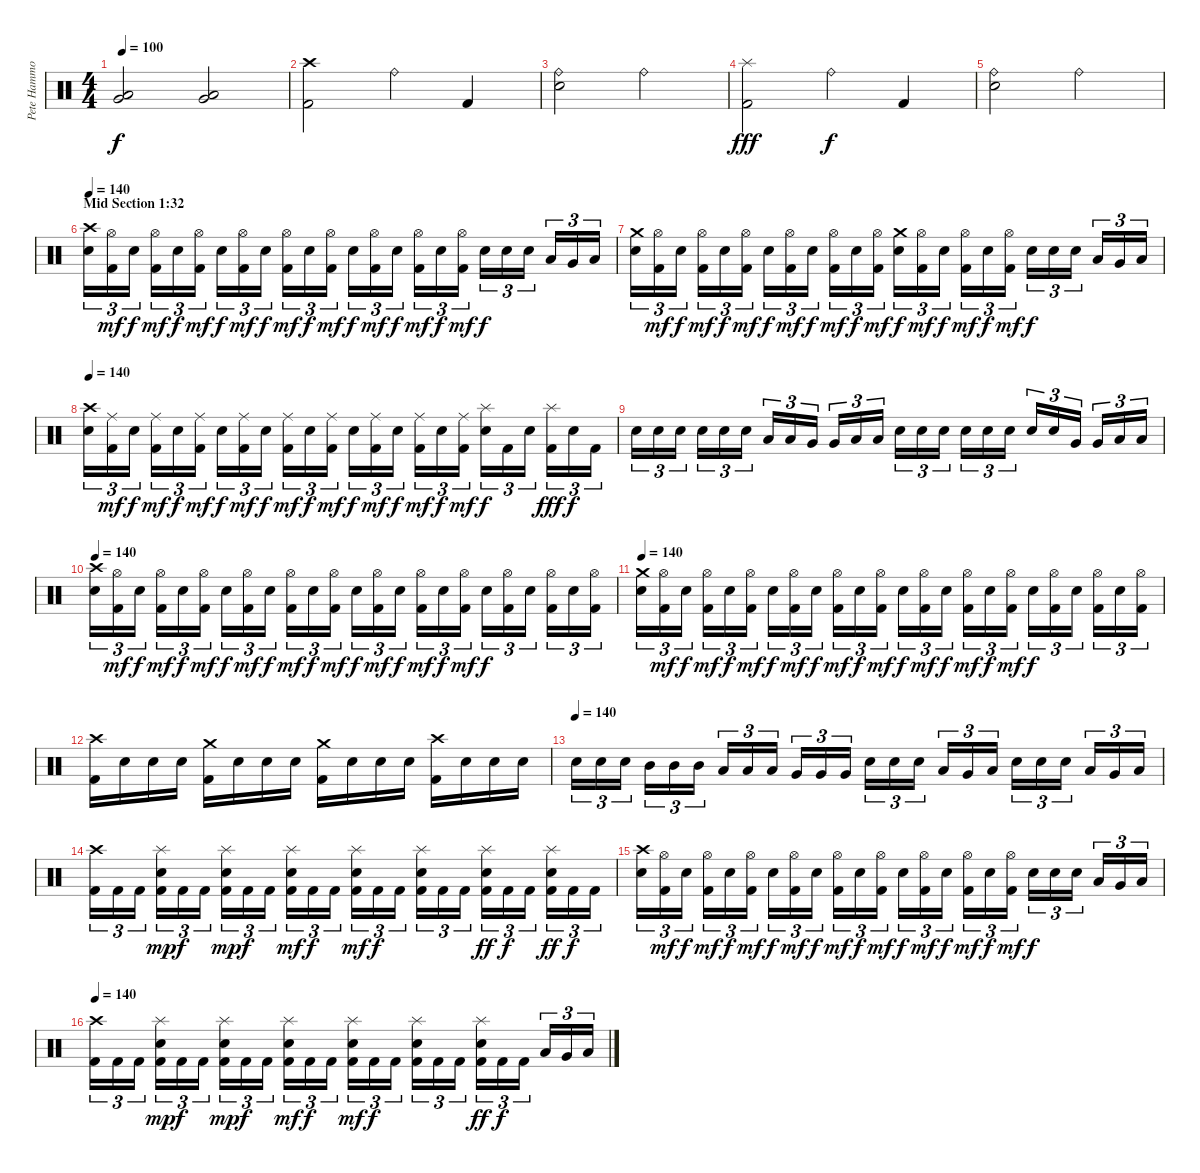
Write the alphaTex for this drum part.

\track ("Pete Hammoura" "Pete Hammo") {instrument percussion}
\staff {score}
\articulation defaults
\ts (4 4)
\tempo 100
\clef neutral
\ks c
("Low Tom (hit)" "Very Low Tom (hit)").2{dy f} ("Very Low Tom (hit)" "Low Floor Tom (hit)").2 |
("Crash high (hit)" "Kick (hit) 2").2 "Ride (bell)".4 "Kick (hit) 2".4 |
("Ride (bell)" "Electric Snare (hit)").2 "Ride (bell)".2 |
("Splash (hit)" "Kick (hit) 2").2{dy fff} "Ride (bell)".4{dy f} "Kick (hit) 2".4 |
("Ride (bell)" "Electric Snare (hit)").2 "Ride (bell)".2 |
\section ("" "Mid Section 1:32")
\tempo 140
("Crash high (hit)" "Electric Snare (hit)").16{tu (3 2)} ("Hi-Hat (open)" "Kick (hit) 2").16{tu (3 2) dy mf} "Electric Snare (hit)".16{tu (3 2) dy f} ("Hi-Hat (open)" "Kick (hit) 2").16{tu (3 2) dy mf} "Electric Snare (hit)".16{tu (3 2) dy f} ("Hi-Hat (open)" "Kick (hit) 2").16{tu (3 2) dy mf} "Electric Snare (hit)".16{tu (3 2) dy f} ("Hi-Hat (open)" "Kick (hit) 2").16{tu (3 2) dy mf} "Electric Snare (hit)".16{tu (3 2) dy f} ("Hi-Hat (open)" "Kick (hit) 2").16{tu (3 2) dy mf} "Electric Snare (hit)".16{tu (3 2) dy f} ("Hi-Hat (open)" "Kick (hit) 2").16{tu (3 2) dy mf} "Electric Snare (hit)".16{tu (3 2) dy f} ("Hi-Hat (open)" "Kick (hit) 2").16{tu (3 2) dy mf} "Electric Snare (hit)".16{tu (3 2) dy f} ("Hi-Hat (open)" "Kick (hit) 2").16{tu (3 2) dy mf} "Electric Snare (hit)".16{tu (3 2) dy f} ("Hi-Hat (open)" "Kick (hit) 2").16{tu (3 2) dy mf} "Electric Snare (hit)".16{tu (3 2) dy f} "Electric Snare (hit)".16{tu (3 2)} "Electric Snare (hit)".16{tu (3 2)} "Low Tom (hit)".16{tu (3 2)} "Very Low Tom (hit)".16{tu (3 2)} "Low Floor Tom (hit)".16{tu (3 2)} |
("Crash medium (hit)" "Electric Snare (hit)").16{tu (3 2)} ("Hi-Hat (open)" "Kick (hit) 2").16{tu (3 2) dy mf} "Electric Snare (hit)".16{tu (3 2) dy f} ("Hi-Hat (open)" "Kick (hit) 2").16{tu (3 2) dy mf} "Electric Snare (hit)".16{tu (3 2) dy f} ("Hi-Hat (open)" "Kick (hit) 2").16{tu (3 2) dy mf} "Electric Snare (hit)".16{tu (3 2) dy f} ("Hi-Hat (open)" "Kick (hit) 2").16{tu (3 2) dy mf} "Electric Snare (hit)".16{tu (3 2) dy f} ("Hi-Hat (open)" "Kick (hit) 2").16{tu (3 2) dy mf} "Electric Snare (hit)".16{tu (3 2) dy f} ("Hi-Hat (open)" "Kick (hit) 2").16{tu (3 2) dy mf} ("Crash medium (hit)" "Electric Snare (hit)").16{tu (3 2) dy f} ("Hi-Hat (open)" "Kick (hit) 2").16{tu (3 2) dy mf} "Electric Snare (hit)".16{tu (3 2) dy f} ("Hi-Hat (open)" "Kick (hit) 2").16{tu (3 2) dy mf} "Electric Snare (hit)".16{tu (3 2) dy f} ("Hi-Hat (open)" "Kick (hit) 2").16{tu (3 2) dy mf} "Electric Snare (hit)".16{tu (3 2) dy f} "Electric Snare (hit)".16{tu (3 2)} "Electric Snare (hit)".16{tu (3 2)} "Low Tom (hit)".16{tu (3 2)} "Very Low Tom (hit)".16{tu (3 2)} "Low Floor Tom (hit)".16{tu (3 2)} |
\tempo 140
("Crash high (hit)" "Electric Snare (hit)").16{tu (3 2)} ("Ride (middle)" "Kick (hit) 2").16{tu (3 2) dy mf} "Electric Snare (hit)".16{tu (3 2) dy f} ("Ride (middle)" "Kick (hit) 2").16{tu (3 2) dy mf} "Electric Snare (hit)".16{tu (3 2) dy f} ("Ride (middle)" "Kick (hit) 2").16{tu (3 2) dy mf} "Electric Snare (hit)".16{tu (3 2) dy f} ("Ride (middle)" "Kick (hit) 2").16{tu (3 2) dy mf} "Electric Snare (hit)".16{tu (3 2) dy f} ("Ride (middle)" "Kick (hit) 2").16{tu (3 2) dy mf} "Electric Snare (hit)".16{tu (3 2) dy f} ("Ride (middle)" "Kick (hit) 2").16{tu (3 2) dy mf} "Electric Snare (hit)".16{tu (3 2) dy f} ("Ride (middle)" "Kick (hit) 2").16{tu (3 2) dy mf} "Electric Snare (hit)".16{tu (3 2) dy f} ("Ride (middle)" "Kick (hit) 2").16{tu (3 2) dy mf} "Electric Snare (hit)".16{tu (3 2) dy f} ("Ride (middle)" "Kick (hit) 2").16{tu (3 2) dy mf} ("Splash (hit)" "Electric Snare (hit)").16{tu (3 2) dy f} "Kick (hit) 2".16{tu (3 2)} "Electric Snare (hit)".16{tu (3 2)} ("Splash (hit)" "Kick (hit) 2").16{tu (3 2) dy fff} "Electric Snare (hit)".16{tu (3 2) dy f} "Kick (hit) 2".16{tu (3 2)} |
"Electric Snare (hit)".16{tu (3 2)} "Electric Snare (hit)".16{tu (3 2)} "Electric Snare (hit)".16{tu (3 2)} "Electric Snare (hit)".16{tu (3 2)} "Electric Snare (hit)".16{tu (3 2)} "Electric Snare (hit)".16{tu (3 2)} "Low Tom (hit)".16{tu (3 2)} "Low Tom (hit)".16{tu (3 2)} "Very Low Tom (hit)".16{tu (3 2)} "Very Low Tom (hit)".16{tu (3 2)} "Low Floor Tom (hit)".16{tu (3 2)} "Low Floor Tom (hit)".16{tu (3 2)} "Electric Snare (hit)".16{tu (3 2)} "Electric Snare (hit)".16{tu (3 2)} "Electric Snare (hit)".16{tu (3 2)} "Electric Snare (hit)".16{tu (3 2)} "Electric Snare (hit)".16{tu (3 2)} "Electric Snare (hit)".16{tu (3 2)} "Electric Snare (hit)".16{tu (3 2)} "Electric Snare (hit)".16{tu (3 2)} "Very Low Tom (hit)".16{tu (3 2)} "Very Low Tom (hit)".16{tu (3 2)} "Low Floor Tom (hit)".16{tu (3 2)} "Low Floor Tom (hit)".16{tu (3 2)} |
\tempo 140
("Crash high (hit)" "Electric Snare (hit)").16{tu (3 2)} ("Hi-Hat (open)" "Kick (hit) 2").16{tu (3 2) dy mf} "Electric Snare (hit)".16{tu (3 2) dy f} ("Hi-Hat (open)" "Kick (hit) 2").16{tu (3 2) dy mf} "Electric Snare (hit)".16{tu (3 2) dy f} ("Hi-Hat (open)" "Kick (hit) 2").16{tu (3 2) dy mf} "Electric Snare (hit)".16{tu (3 2) dy f} ("Hi-Hat (open)" "Kick (hit) 2").16{tu (3 2) dy mf} "Electric Snare (hit)".16{tu (3 2) dy f} ("Hi-Hat (open)" "Kick (hit) 2").16{tu (3 2) dy mf} "Electric Snare (hit)".16{tu (3 2) dy f} ("Hi-Hat (open)" "Kick (hit) 2").16{tu (3 2) dy mf} "Electric Snare (hit)".16{tu (3 2) dy f} ("Hi-Hat (open)" "Kick (hit) 2").16{tu (3 2) dy mf} "Electric Snare (hit)".16{tu (3 2) dy f} ("Hi-Hat (open)" "Kick (hit) 2").16{tu (3 2) dy mf} "Electric Snare (hit)".16{tu (3 2) dy f} ("Hi-Hat (open)" "Kick (hit) 2").16{tu (3 2) dy mf} "Electric Snare (hit)".16{tu (3 2) dy f} ("Hi-Hat (open)" "Kick (hit) 2").16{tu (3 2)} "Electric Snare (hit)".16{tu (3 2)} ("Hi-Hat (open)" "Kick (hit) 2").16{tu (3 2)} "Electric Snare (hit)".16{tu (3 2)} ("Hi-Hat (open)" "Kick (hit) 2").16{tu (3 2)} |
\tempo 140
("Crash medium (hit)" "Electric Snare (hit)").16{tu (3 2)} ("Hi-Hat (open)" "Kick (hit) 2").16{tu (3 2) dy mf} "Electric Snare (hit)".16{tu (3 2) dy f} ("Hi-Hat (open)" "Kick (hit) 2").16{tu (3 2) dy mf} "Electric Snare (hit)".16{tu (3 2) dy f} ("Hi-Hat (open)" "Kick (hit) 2").16{tu (3 2) dy mf} "Electric Snare (hit)".16{tu (3 2) dy f} ("Hi-Hat (open)" "Kick (hit) 2").16{tu (3 2) dy mf} "Electric Snare (hit)".16{tu (3 2) dy f} ("Hi-Hat (open)" "Kick (hit) 2").16{tu (3 2) dy mf} "Electric Snare (hit)".16{tu (3 2) dy f} ("Hi-Hat (open)" "Kick (hit) 2").16{tu (3 2) dy mf} "Electric Snare (hit)".16{tu (3 2) dy f} ("Hi-Hat (open)" "Kick (hit) 2").16{tu (3 2) dy mf} "Electric Snare (hit)".16{tu (3 2) dy f} ("Hi-Hat (open)" "Kick (hit) 2").16{tu (3 2) dy mf} "Electric Snare (hit)".16{tu (3 2) dy f} ("Hi-Hat (open)" "Kick (hit) 2").16{tu (3 2) dy mf} "Electric Snare (hit)".16{tu (3 2) dy f} ("Hi-Hat (open)" "Kick (hit) 2").16{tu (3 2)} "Electric Snare (hit)".16{tu (3 2)} ("Hi-Hat (open)" "Kick (hit) 2").16{tu (3 2)} "Electric Snare (hit)".16{tu (3 2)} ("Hi-Hat (open)" "Kick (hit) 2").16{tu (3 2)} |
("Crash high (hit)" "Kick (hit) 2").16 "Electric Snare (hit)".16 "Electric Snare (hit)".16 "Electric Snare (hit)".16 ("Crash medium (hit)" "Kick (hit) 2").16 "Electric Snare (hit)".16 "Electric Snare (hit)".16 "Electric Snare (hit)".16 ("Crash medium (hit)" "Kick (hit) 2").16 "Electric Snare (hit)".16 "Electric Snare (hit)".16 "Electric Snare (hit)".16 ("Crash high (hit)" "Kick (hit) 2").16 "Electric Snare (hit)".16 "Electric Snare (hit)".16 "Electric Snare (hit)".16 |
\tempo (140)
"Electric Snare (hit)".16{tu (3 2)} "Electric Snare (hit)".16{tu (3 2)} "Electric Snare (hit)".16{tu (3 2)} "Mid Tom (hit)".16{tu (3 2)} "Mid Tom (hit)".16{tu (3 2)} "Mid Tom (hit)".16{tu (3 2)} "Low Tom (hit)".16{tu (3 2)} "Low Tom (hit)".16{tu (3 2)} "Low Tom (hit)".16{tu (3 2)} "Very Low Tom (hit)".16{tu (3 2)} "Very Low Tom (hit)".16{tu (3 2)} "Very Low Tom (hit)".16{tu (3 2)} "Electric Snare (hit)".16{tu (3 2)} "Electric Snare (hit)".16{tu (3 2)} "Electric Snare (hit)".16{tu (3 2)} "Low Tom (hit)".16{tu (3 2)} "Very Low Tom (hit)".16{tu (3 2)} "Low Floor Tom (hit)".16{tu (3 2)} "Electric Snare (hit)".16{tu (3 2)} "Electric Snare (hit)".16{tu (3 2)} "Electric Snare (hit)".16{tu (3 2)} "Low Tom (hit)".16{tu (3 2)} "Very Low Tom (hit)".16{tu (3 2)} "Low Floor Tom (hit)".16{tu (3 2)} |
("Crash high (hit)" "Kick (hit) 2").16{tu (3 2)} "Kick (hit) 2".16{tu (3 2)} "Kick (hit) 2".16{tu (3 2)} ("Splash (hit)" "Electric Snare (hit)" "Kick (hit) 2").16{tu (3 2) dy mp} "Kick (hit) 2".16{tu (3 2) dy f} "Kick (hit) 2".16{tu (3 2)} ("Splash (hit)" "Electric Snare (hit)" "Kick (hit) 2").16{tu (3 2) dy mp} "Kick (hit) 2".16{tu (3 2) dy f} "Kick (hit) 2".16{tu (3 2)} ("Splash (hit)" "Electric Snare (hit)" "Kick (hit) 2").16{tu (3 2) dy mf} "Kick (hit) 2".16{tu (3 2) dy f} "Kick (hit) 2".16{tu (3 2)} ("Splash (hit)" "Electric Snare (hit)" "Kick (hit) 2").16{tu (3 2) dy mf} "Kick (hit) 2".16{tu (3 2) dy f} "Kick (hit) 2".16{tu (3 2)} ("Splash (hit)" "Electric Snare (hit)" "Kick (hit) 2").16{tu (3 2)} "Kick (hit) 2".16{tu (3 2)} "Kick (hit) 2".16{tu (3 2)} ("Splash (hit)" "Electric Snare (hit)" "Kick (hit) 2").16{tu (3 2) dy ff} "Kick (hit) 2".16{tu (3 2) dy f} "Kick (hit) 2".16{tu (3 2)} ("Splash (hit)" "Electric Snare (hit)" "Kick (hit) 2").16{tu (3 2) dy ff} "Kick (hit) 2".16{tu (3 2) dy f} "Kick (hit) 2".16{tu (3 2)} |
("Crash high (hit)" "Electric Snare (hit)").16{tu (3 2)} ("Hi-Hat (open)" "Kick (hit) 2").16{tu (3 2) dy mf} "Electric Snare (hit)".16{tu (3 2) dy f} ("Hi-Hat (open)" "Kick (hit) 2").16{tu (3 2) dy mf} "Electric Snare (hit)".16{tu (3 2) dy f} ("Hi-Hat (open)" "Kick (hit) 2").16{tu (3 2) dy mf} "Electric Snare (hit)".16{tu (3 2) dy f} ("Hi-Hat (open)" "Kick (hit) 2").16{tu (3 2) dy mf} "Electric Snare (hit)".16{tu (3 2) dy f} ("Hi-Hat (open)" "Kick (hit) 2").16{tu (3 2) dy mf} "Electric Snare (hit)".16{tu (3 2) dy f} ("Hi-Hat (open)" "Kick (hit) 2").16{tu (3 2) dy mf} "Electric Snare (hit)".16{tu (3 2) dy f} ("Hi-Hat (open)" "Kick (hit) 2").16{tu (3 2) dy mf} "Electric Snare (hit)".16{tu (3 2) dy f} ("Hi-Hat (open)" "Kick (hit) 2").16{tu (3 2) dy mf} "Electric Snare (hit)".16{tu (3 2) dy f} ("Hi-Hat (open)" "Kick (hit) 2").16{tu (3 2) dy mf} "Electric Snare (hit)".16{tu (3 2) dy f} "Electric Snare (hit)".16{tu (3 2)} "Electric Snare (hit)".16{tu (3 2)} "Low Tom (hit)".16{tu (3 2)} "Very Low Tom (hit)".16{tu (3 2)} "Low Floor Tom (hit)".16{tu (3 2)} |
\tempo 140
("Crash high (hit)" "Kick (hit) 2").16{tu (3 2)} "Kick (hit) 2".16{tu (3 2)} "Kick (hit) 2".16{tu (3 2)} ("Splash (hit)" "Electric Snare (hit)" "Kick (hit) 2").16{tu (3 2) dy mp} "Kick (hit) 2".16{tu (3 2) dy f} "Kick (hit) 2".16{tu (3 2)} ("Splash (hit)" "Electric Snare (hit)" "Kick (hit) 2").16{tu (3 2) dy mp} "Kick (hit) 2".16{tu (3 2) dy f} "Kick (hit) 2".16{tu (3 2)} ("Splash (hit)" "Electric Snare (hit)" "Kick (hit) 2").16{tu (3 2) dy mf} "Kick (hit) 2".16{tu (3 2) dy f} "Kick (hit) 2".16{tu (3 2)} ("Splash (hit)" "Electric Snare (hit)" "Kick (hit) 2").16{tu (3 2) dy mf} "Kick (hit) 2".16{tu (3 2) dy f} "Kick (hit) 2".16{tu (3 2)} ("Splash (hit)" "Electric Snare (hit)" "Kick (hit) 2").16{tu (3 2)} "Kick (hit) 2".16{tu (3 2)} "Kick (hit) 2".16{tu (3 2)} ("Splash (hit)" "Electric Snare (hit)" "Kick (hit) 2").16{tu (3 2) dy ff} "Kick (hit) 2".16{tu (3 2) dy f} "Kick (hit) 2".16{tu (3 2)} "Low Tom (hit)".16{tu (3 2)} "Very Low Tom (hit)".16{tu (3 2)} "Low Floor Tom (hit)".16{tu (3 2)}
